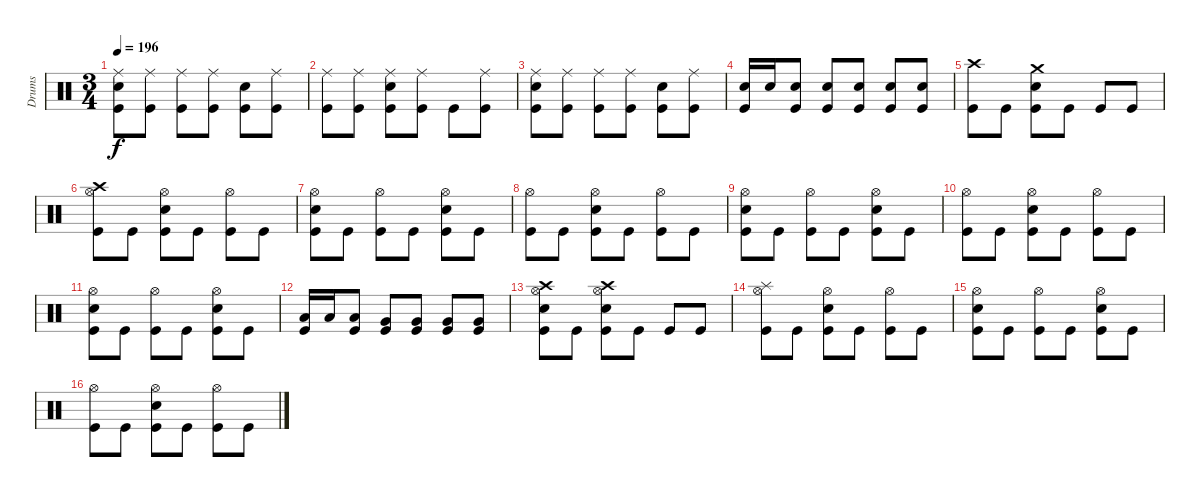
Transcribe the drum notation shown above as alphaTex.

\track ("Drums" "Drums") {instrument percussion}
\staff {score}
\articulation defaults
\ts (3 4)
\tempo 196
\clef neutral
\ks c
("Ride (middle)" "Electric Snare (hit)" "Kick (hit)").8{dy f} ("Ride (middle)" "Kick (hit)").8 ("Ride (middle)" "Kick (hit)").8 ("Ride (middle)" "Kick (hit)").8 ("Electric Snare (hit)" "Kick (hit)").8 ("Ride (middle)" "Kick (hit)").8 |
("Ride (middle)" "Kick (hit)").8 ("Ride (middle)" "Kick (hit)").8 ("Ride (middle)" "Electric Snare (hit)" "Kick (hit)").8 ("Ride (middle)" "Kick (hit)").8 "Kick (hit)".8 ("Ride (middle)" "Kick (hit)").8 |
("Ride (middle)" "Electric Snare (hit)" "Kick (hit)").8 ("Ride (middle)" "Kick (hit)").8 ("Ride (middle)" "Kick (hit)").8 ("Ride (middle)" "Kick (hit)").8 ("Electric Snare (hit)" "Kick (hit)").8 ("Ride (middle)" "Kick (hit)").8 |
("Electric Snare (hit)" "Kick (hit)").16 "Electric Snare (hit)".16 ("Electric Snare (hit)" "Kick (hit)").8 ("Electric Snare (hit)" "Kick (hit)").8 ("Electric Snare (hit)" "Kick (hit)").8 ("Electric Snare (hit)" "Kick (hit)").8 ("Electric Snare (hit)" "Kick (hit)").8 |
("Crash high (hit)" "Kick (hit)").8 "Kick (hit)".8 ("Crash medium (hit)" "Electric Snare (hit)" "Kick (hit)").8 "Kick (hit)".8 "Kick (hit)".8 "Kick (hit)".8 |
("Crash high (hit)" "Hi-Hat (open)" "Kick (hit)").8 "Kick (hit)".8 ("Hi-Hat (open)" "Electric Snare (hit)" "Kick (hit)").8 "Kick (hit)".8 ("Hi-Hat (open)" "Kick (hit)").8 "Kick (hit)".8 |
("Hi-Hat (open)" "Electric Snare (hit)" "Kick (hit)").8 "Kick (hit)".8 ("Hi-Hat (open)" "Kick (hit)").8 "Kick (hit)".8 ("Hi-Hat (open)" "Electric Snare (hit)" "Kick (hit)").8 "Kick (hit)".8 |
("Hi-Hat (open)" "Kick (hit)").8 "Kick (hit)".8 ("Hi-Hat (open)" "Electric Snare (hit)" "Kick (hit)").8 "Kick (hit)".8 ("Hi-Hat (open)" "Kick (hit)").8 "Kick (hit)".8 |
("Hi-Hat (open)" "Electric Snare (hit)" "Kick (hit)").8 "Kick (hit)".8 ("Hi-Hat (open)" "Kick (hit)").8 "Kick (hit)".8 ("Hi-Hat (open)" "Electric Snare (hit)" "Kick (hit)").8 "Kick (hit)".8 |
("Hi-Hat (open)" "Kick (hit)").8 "Kick (hit)".8 ("Hi-Hat (open)" "Electric Snare (hit)" "Kick (hit)").8 "Kick (hit)".8 ("Hi-Hat (open)" "Kick (hit)").8 "Kick (hit)".8 |
("Hi-Hat (open)" "Electric Snare (hit)" "Kick (hit)").8 "Kick (hit)".8 ("Hi-Hat (open)" "Kick (hit)").8 "Kick (hit)".8 ("Hi-Hat (open)" "Electric Snare (hit)" "Kick (hit)").8 "Kick (hit)".8 |
("Low Tom (hit)" "Kick (hit)").16 "Low Tom (hit)".16 ("Low Tom (hit)" "Kick (hit)").8 ("Very Low Tom (hit)" "Kick (hit)").8 ("Very Low Tom (hit)" "Kick (hit)").8 ("Very Low Tom (hit)" "Kick (hit)").8 ("Very Low Tom (hit)" "Kick (hit)").8 |
("Crash high (hit)" "Hi-Hat (open)" "Electric Snare (hit)" "Kick (hit)").8 "Kick (hit)".8 ("Crash high (hit)" "Hi-Hat (open)" "Electric Snare (hit)" "Kick (hit)").8 "Kick (hit)".8 "Kick (hit)".8 "Kick (hit)".8 |
("Splash (hit)" "Hi-Hat (open)" "Kick (hit)").8 "Kick (hit)".8 ("Hi-Hat (open)" "Electric Snare (hit)" "Kick (hit)").8 "Kick (hit)".8 ("Hi-Hat (open)" "Kick (hit)").8 "Kick (hit)".8 |
("Hi-Hat (open)" "Electric Snare (hit)" "Kick (hit)").8 "Kick (hit)".8 ("Hi-Hat (open)" "Kick (hit)").8 "Kick (hit)".8 ("Hi-Hat (open)" "Electric Snare (hit)" "Kick (hit)").8 "Kick (hit)".8 |
("Hi-Hat (open)" "Kick (hit)").8 "Kick (hit)".8 ("Hi-Hat (open)" "Electric Snare (hit)" "Kick (hit)").8 "Kick (hit)".8 ("Hi-Hat (open)" "Kick (hit)").8 "Kick (hit)".8
